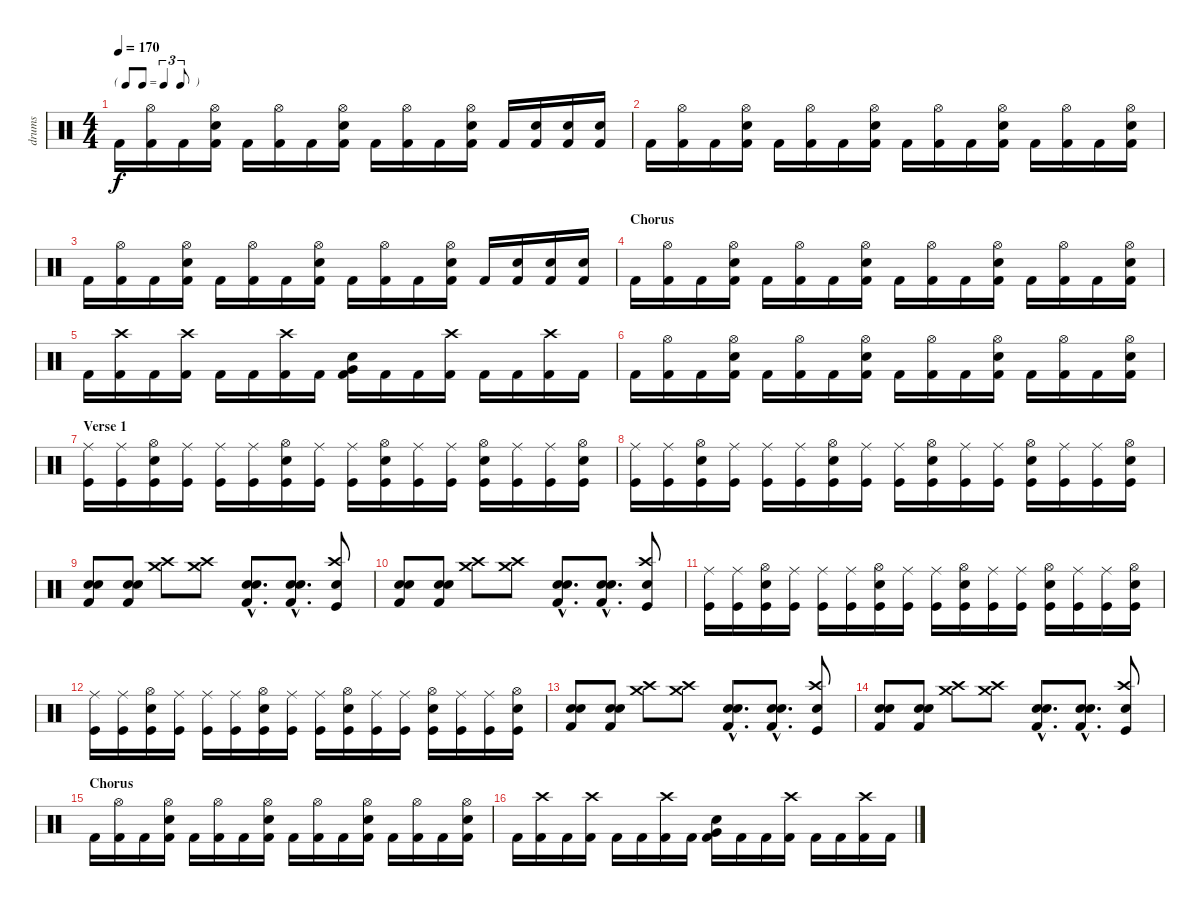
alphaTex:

\track ("drums" "drums") {instrument percussion}
\staff {score}
\articulation defaults
\ts (4 4)
\tf triplet8th
\tempo 170
\clef neutral
\ks c "Kick (hit) 2".16{dy f}
("Kick (hit) 2" "Hi-Hat (open)").16 "Kick (hit) 2".16 ("Kick (hit) 2" "Electric Snare (hit)" "Hi-Hat (open)").16 "Kick (hit) 2".16 ("Kick (hit) 2" "Hi-Hat (open)").16 "Kick (hit) 2".16 ("Kick (hit) 2" "Electric Snare (hit)" "Hi-Hat (open)").16 "Kick (hit) 2".16 ("Kick (hit) 2" "Hi-Hat (open)").16 "Kick (hit) 2".16 ("Kick (hit) 2" "Electric Snare (hit)" "Hi-Hat (open)").16 "Kick (hit) 2".16 ("Kick (hit) 2" "Snare (hit) 2").16 ("Kick (hit) 2" "Snare (hit) 2").16 ("Kick (hit) 2" "Snare (hit) 2").16 |
"Kick (hit) 2".16 ("Kick (hit) 2" "Hi-Hat (open)").16 "Kick (hit) 2".16 ("Kick (hit) 2" "Electric Snare (hit)" "Hi-Hat (open)").16 "Kick (hit) 2".16 ("Kick (hit) 2" "Hi-Hat (open)").16 "Kick (hit) 2".16 ("Kick (hit) 2" "Electric Snare (hit)" "Hi-Hat (open)").16 "Kick (hit) 2".16 ("Kick (hit) 2" "Hi-Hat (open)").16 "Kick (hit) 2".16 ("Kick (hit) 2" "Electric Snare (hit)" "Hi-Hat (open)").16 "Kick (hit) 2".16 ("Kick (hit) 2" "Hi-Hat (open)").16 "Kick (hit) 2".16 ("Kick (hit) 2" "Electric Snare (hit)" "Hi-Hat (open)").16 |
"Kick (hit) 2".16 ("Kick (hit) 2" "Hi-Hat (open)").16 "Kick (hit) 2".16 ("Kick (hit) 2" "Electric Snare (hit)" "Hi-Hat (open)").16 "Kick (hit) 2".16 ("Kick (hit) 2" "Hi-Hat (open)").16 "Kick (hit) 2".16 ("Kick (hit) 2" "Electric Snare (hit)" "Hi-Hat (open)").16 "Kick (hit) 2".16 ("Kick (hit) 2" "Hi-Hat (open)").16 "Kick (hit) 2".16 ("Kick (hit) 2" "Electric Snare (hit)" "Hi-Hat (open)").16 "Kick (hit) 2".16 ("Kick (hit) 2" "Snare (hit) 2").16 ("Kick (hit) 2" "Snare (hit) 2").16 ("Kick (hit) 2" "Snare (hit) 2").16 |
\section ("" "Chorus")
"Kick (hit) 2".16 ("Kick (hit) 2" "Hi-Hat (open)").16 "Kick (hit) 2".16 ("Kick (hit) 2" "Electric Snare (hit)" "Hi-Hat (open)").16 "Kick (hit) 2".16 ("Kick (hit) 2" "Hi-Hat (open)").16 "Kick (hit) 2".16 ("Kick (hit) 2" "Electric Snare (hit)" "Hi-Hat (open)").16 "Kick (hit) 2".16 ("Kick (hit) 2" "Hi-Hat (open)").16 "Kick (hit) 2".16 ("Kick (hit) 2" "Electric Snare (hit)" "Hi-Hat (open)").16 "Kick (hit) 2".16 ("Kick (hit) 2" "Hi-Hat (open)").16 "Kick (hit) 2".16 ("Kick (hit) 2" "Electric Snare (hit)" "Hi-Hat (open)").16 |
"Kick (hit) 2".16 ("Kick (hit) 2" "Crash high (hit)").16 "Kick (hit) 2".16 ("Kick (hit) 2" "Crash high (hit)").16 "Kick (hit) 2".16 "Kick (hit) 2".16 ("Kick (hit) 2" "Crash high (hit)").16 "Kick (hit) 2".16 ("Kick (hit) 2" "Electric Snare (hit)" "Very Low Tom (hit)").16 "Kick (hit) 2".16 "Kick (hit) 2".16 ("Kick (hit) 2" "Crash high (hit)").16 "Kick (hit) 2".16 "Kick (hit) 2".16 ("Kick (hit) 2" "Crash high (hit)").16 "Kick (hit) 2".16 |
"Kick (hit) 2".16 ("Kick (hit) 2" "Hi-Hat (open)").16 "Kick (hit) 2".16 ("Kick (hit) 2" "Electric Snare (hit)" "Hi-Hat (open)").16 "Kick (hit) 2".16 ("Kick (hit) 2" "Hi-Hat (open)").16 "Kick (hit) 2".16 ("Kick (hit) 2" "Electric Snare (hit)" "Hi-Hat (open)").16 "Kick (hit) 2".16 ("Kick (hit) 2" "Hi-Hat (open)").16 "Kick (hit) 2".16 ("Kick (hit) 2" "Electric Snare (hit)" "Hi-Hat (open)").16 "Kick (hit) 2".16 ("Kick (hit) 2" "Hi-Hat (open)").16 "Kick (hit) 2".16 ("Kick (hit) 2" "Electric Snare (hit)" "Hi-Hat (open)").16 |
\section ("" "Verse 1")
("Ride (middle)" "Kick (hit)").16 ("Ride (middle)" "Kick (hit)").16 ("Hi-Hat (open)" "Electric Snare (hit)" "Kick (hit)").16 ("Ride (middle)" "Kick (hit)").16 ("Ride (middle)" "Kick (hit)").16 ("Ride (middle)" "Kick (hit)").16 ("Hi-Hat (open)" "Electric Snare (hit)" "Kick (hit)").16 ("Ride (middle)" "Kick (hit)").16 ("Ride (middle)" "Kick (hit)").16 ("Hi-Hat (open)" "Electric Snare (hit)" "Kick (hit)").16 ("Ride (middle)" "Kick (hit)").16 ("Ride (middle)" "Kick (hit)").16 ("Hi-Hat (open)" "Electric Snare (hit)" "Kick (hit)").16 ("Ride (middle)" "Kick (hit)").16 ("Ride (middle)" "Kick (hit)").16 ("Hi-Hat (open)" "Electric Snare (hit)" "Kick (hit)").16 |
("Ride (middle)" "Kick (hit)").16 ("Ride (middle)" "Kick (hit)").16 ("Hi-Hat (open)" "Electric Snare (hit)" "Kick (hit)").16 ("Ride (middle)" "Kick (hit)").16 ("Ride (middle)" "Kick (hit)").16 ("Ride (middle)" "Kick (hit)").16 ("Hi-Hat (open)" "Electric Snare (hit)" "Kick (hit)").16 ("Ride (middle)" "Kick (hit)").16 ("Ride (middle)" "Kick (hit)").16 ("Hi-Hat (open)" "Electric Snare (hit)" "Kick (hit)").16 ("Ride (middle)" "Kick (hit)").16 ("Ride (middle)" "Kick (hit)").16 ("Hi-Hat (open)" "Electric Snare (hit)" "Kick (hit)").16 ("Ride (middle)" "Kick (hit)").16 ("Ride (middle)" "Kick (hit)").16 ("Hi-Hat (open)" "Electric Snare (hit)" "Kick (hit)").16 |
("Electric Snare (hit)" "Snare (hit) 2" "Kick (hit) 2").8 ("Electric Snare (hit)" "Snare (hit) 2" "Kick (hit) 2").8 ("Crash medium (hit)" "Crash high (hit)").8 ("Crash medium (hit)" "Crash high (hit)").8 ("Electric Snare (hit)"{hac} "Snare (hit) 2"{hac} "Kick (hit) 2"{hac}).8{d} ("Electric Snare (hit)"{hac} "Snare (hit) 2"{hac} "Kick (hit) 2"{hac}).8{d} ("Crash high (hit)" "Snare (hit) 2" "Kick (hit)").8 |
("Electric Snare (hit)" "Snare (hit) 2" "Kick (hit) 2").8 ("Electric Snare (hit)" "Snare (hit) 2" "Kick (hit) 2").8 ("Crash medium (hit)" "Crash high (hit)").8 ("Crash medium (hit)" "Crash high (hit)").8 ("Electric Snare (hit)"{hac} "Snare (hit) 2"{hac} "Kick (hit) 2"{hac}).8{d} ("Electric Snare (hit)"{hac} "Snare (hit) 2"{hac} "Kick (hit) 2"{hac}).8{d} ("Crash high (hit)" "Snare (hit) 2" "Kick (hit)").8 |
("Ride (middle)" "Kick (hit)").16 ("Ride (middle)" "Kick (hit)").16 ("Hi-Hat (open)" "Electric Snare (hit)" "Kick (hit)").16 ("Ride (middle)" "Kick (hit)").16 ("Ride (middle)" "Kick (hit)").16 ("Ride (middle)" "Kick (hit)").16 ("Hi-Hat (open)" "Electric Snare (hit)" "Kick (hit)").16 ("Ride (middle)" "Kick (hit)").16 ("Ride (middle)" "Kick (hit)").16 ("Hi-Hat (open)" "Electric Snare (hit)" "Kick (hit)").16 ("Ride (middle)" "Kick (hit)").16 ("Ride (middle)" "Kick (hit)").16 ("Hi-Hat (open)" "Electric Snare (hit)" "Kick (hit)").16 ("Ride (middle)" "Kick (hit)").16 ("Ride (middle)" "Kick (hit)").16 ("Hi-Hat (open)" "Electric Snare (hit)" "Kick (hit)").16 |
("Ride (middle)" "Kick (hit)").16 ("Ride (middle)" "Kick (hit)").16 ("Hi-Hat (open)" "Electric Snare (hit)" "Kick (hit)").16 ("Ride (middle)" "Kick (hit)").16 ("Ride (middle)" "Kick (hit)").16 ("Ride (middle)" "Kick (hit)").16 ("Hi-Hat (open)" "Electric Snare (hit)" "Kick (hit)").16 ("Ride (middle)" "Kick (hit)").16 ("Ride (middle)" "Kick (hit)").16 ("Hi-Hat (open)" "Electric Snare (hit)" "Kick (hit)").16 ("Ride (middle)" "Kick (hit)").16 ("Ride (middle)" "Kick (hit)").16 ("Hi-Hat (open)" "Electric Snare (hit)" "Kick (hit)").16 ("Ride (middle)" "Kick (hit)").16 ("Ride (middle)" "Kick (hit)").16 ("Hi-Hat (open)" "Electric Snare (hit)" "Kick (hit)").16 |
("Electric Snare (hit)" "Snare (hit) 2" "Kick (hit) 2").8 ("Electric Snare (hit)" "Snare (hit) 2" "Kick (hit) 2").8 ("Crash medium (hit)" "Crash high (hit)").8 ("Crash medium (hit)" "Crash high (hit)").8 ("Electric Snare (hit)"{hac} "Snare (hit) 2"{hac} "Kick (hit) 2"{hac}).8{d} ("Electric Snare (hit)"{hac} "Snare (hit) 2"{hac} "Kick (hit) 2"{hac}).8{d} ("Crash high (hit)" "Snare (hit) 2" "Kick (hit)").8 |
("Electric Snare (hit)" "Snare (hit) 2" "Kick (hit) 2").8 ("Electric Snare (hit)" "Snare (hit) 2" "Kick (hit) 2").8 ("Crash medium (hit)" "Crash high (hit)").8 ("Crash medium (hit)" "Crash high (hit)").8 ("Electric Snare (hit)"{hac} "Snare (hit) 2"{hac} "Kick (hit) 2"{hac}).8{d} ("Electric Snare (hit)"{hac} "Snare (hit) 2"{hac} "Kick (hit) 2"{hac}).8{d} ("Crash high (hit)" "Snare (hit) 2" "Kick (hit)").8 |
\section ("" "Chorus")
"Kick (hit) 2".16 ("Kick (hit) 2" "Hi-Hat (open)").16 "Kick (hit) 2".16 ("Kick (hit) 2" "Electric Snare (hit)" "Hi-Hat (open)").16 "Kick (hit) 2".16 ("Kick (hit) 2" "Hi-Hat (open)").16 "Kick (hit) 2".16 ("Kick (hit) 2" "Electric Snare (hit)" "Hi-Hat (open)").16 "Kick (hit) 2".16 ("Kick (hit) 2" "Hi-Hat (open)").16 "Kick (hit) 2".16 ("Kick (hit) 2" "Electric Snare (hit)" "Hi-Hat (open)").16 "Kick (hit) 2".16 ("Kick (hit) 2" "Hi-Hat (open)").16 "Kick (hit) 2".16 ("Kick (hit) 2" "Electric Snare (hit)" "Hi-Hat (open)").16 |
"Kick (hit) 2".16 ("Kick (hit) 2" "Crash high (hit)").16 "Kick (hit) 2".16 ("Kick (hit) 2" "Crash high (hit)").16 "Kick (hit) 2".16 "Kick (hit) 2".16 ("Kick (hit) 2" "Crash high (hit)").16 "Kick (hit) 2".16 ("Kick (hit) 2" "Electric Snare (hit)" "Very Low Tom (hit)").16 "Kick (hit) 2".16 "Kick (hit) 2".16 ("Kick (hit) 2" "Crash high (hit)").16 "Kick (hit) 2".16 "Kick (hit) 2".16 ("Kick (hit) 2" "Crash high (hit)").16 "Kick (hit) 2".16
